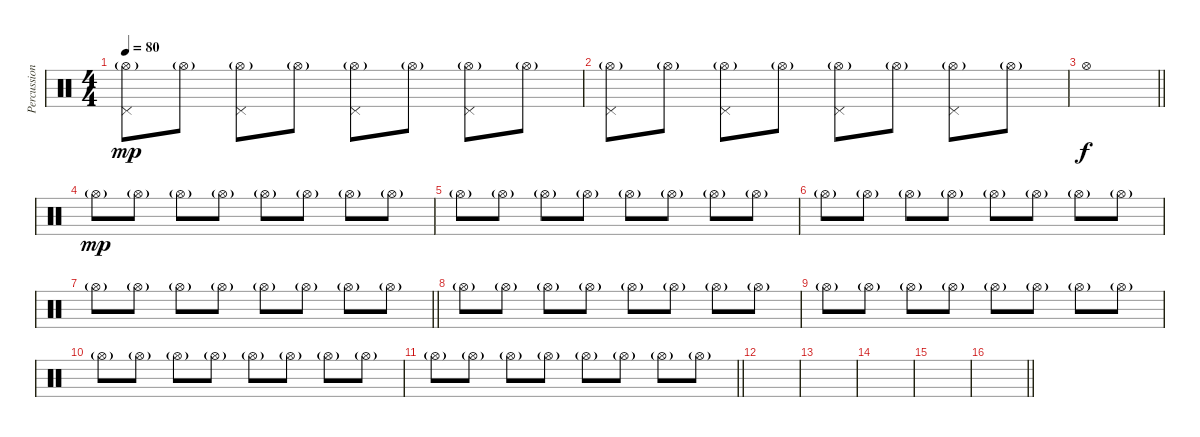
\track ("Percussion" "Percussion") {instrument percussion}
\staff {score}
\articulation defaults
\ts (4 4)
\tempo 80
\clef neutral
\ks c
("Hi-Hat (open)"{g} "Pedal Hi-Hat (hit)").8{dy mp} "Hi-Hat (open)"{g}.8 ("Hi-Hat (open)"{g} "Pedal Hi-Hat (hit)").8 "Hi-Hat (open)"{g}.8 ("Hi-Hat (open)"{g} "Pedal Hi-Hat (hit)").8 "Hi-Hat (open)"{g}.8 ("Hi-Hat (open)"{g} "Pedal Hi-Hat (hit)").8 "Hi-Hat (open)"{g}.8 |
("Hi-Hat (open)"{g} "Pedal Hi-Hat (hit)").8 "Hi-Hat (open)"{g}.8 ("Hi-Hat (open)"{g} "Pedal Hi-Hat (hit)").8 "Hi-Hat (open)"{g}.8 ("Hi-Hat (open)"{g} "Pedal Hi-Hat (hit)").8 "Hi-Hat (open)"{g}.8 ("Hi-Hat (open)"{g} "Pedal Hi-Hat (hit)").8 "Hi-Hat (open)"{g}.8 |
\barLineRight lightlight "Hi-Hat (open)".1{dy f}
|
"Hi-Hat (open)"{g}.8{dy mp} "Hi-Hat (open)"{g}.8 "Hi-Hat (open)"{g}.8 "Hi-Hat (open)"{g}.8 "Hi-Hat (open)"{g}.8 "Hi-Hat (open)"{g}.8 "Hi-Hat (open)"{g}.8 "Hi-Hat (open)"{g}.8 |
"Hi-Hat (open)"{g}.8 "Hi-Hat (open)"{g}.8 "Hi-Hat (open)"{g}.8 "Hi-Hat (open)"{g}.8 "Hi-Hat (open)"{g}.8 "Hi-Hat (open)"{g}.8 "Hi-Hat (open)"{g}.8 "Hi-Hat (open)"{g}.8 |
"Hi-Hat (open)"{g}.8 "Hi-Hat (open)"{g}.8 "Hi-Hat (open)"{g}.8 "Hi-Hat (open)"{g}.8 "Hi-Hat (open)"{g}.8 "Hi-Hat (open)"{g}.8 "Hi-Hat (open)"{g}.8 "Hi-Hat (open)"{g}.8 |
\barLineRight lightlight "Hi-Hat (open)"{g}.8 "Hi-Hat (open)"{g}.8 "Hi-Hat (open)"{g}.8 "Hi-Hat (open)"{g}.8 "Hi-Hat (open)"{g}.8 "Hi-Hat (open)"{g}.8 "Hi-Hat (open)"{g}.8 "Hi-Hat (open)"{g}.8
|
"Hi-Hat (open)"{g}.8 "Hi-Hat (open)"{g}.8 "Hi-Hat (open)"{g}.8 "Hi-Hat (open)"{g}.8 "Hi-Hat (open)"{g}.8 "Hi-Hat (open)"{g}.8 "Hi-Hat (open)"{g}.8 "Hi-Hat (open)"{g}.8 |
"Hi-Hat (open)"{g}.8 "Hi-Hat (open)"{g}.8 "Hi-Hat (open)"{g}.8 "Hi-Hat (open)"{g}.8 "Hi-Hat (open)"{g}.8 "Hi-Hat (open)"{g}.8 "Hi-Hat (open)"{g}.8 "Hi-Hat (open)"{g}.8 |
"Hi-Hat (open)"{g}.8 "Hi-Hat (open)"{g}.8 "Hi-Hat (open)"{g}.8 "Hi-Hat (open)"{g}.8 "Hi-Hat (open)"{g}.8 "Hi-Hat (open)"{g}.8 "Hi-Hat (open)"{g}.8 "Hi-Hat (open)"{g}.8 |
\barLineRight lightlight "Hi-Hat (open)"{g}.8 "Hi-Hat (open)"{g}.8 "Hi-Hat (open)"{g}.8 "Hi-Hat (open)"{g}.8 "Hi-Hat (open)"{g}.8 "Hi-Hat (open)"{g}.8 "Hi-Hat (open)"{g}.8 "Hi-Hat (open)"{g}.8
|
|
|
|
|
\barLineRight lightlight
